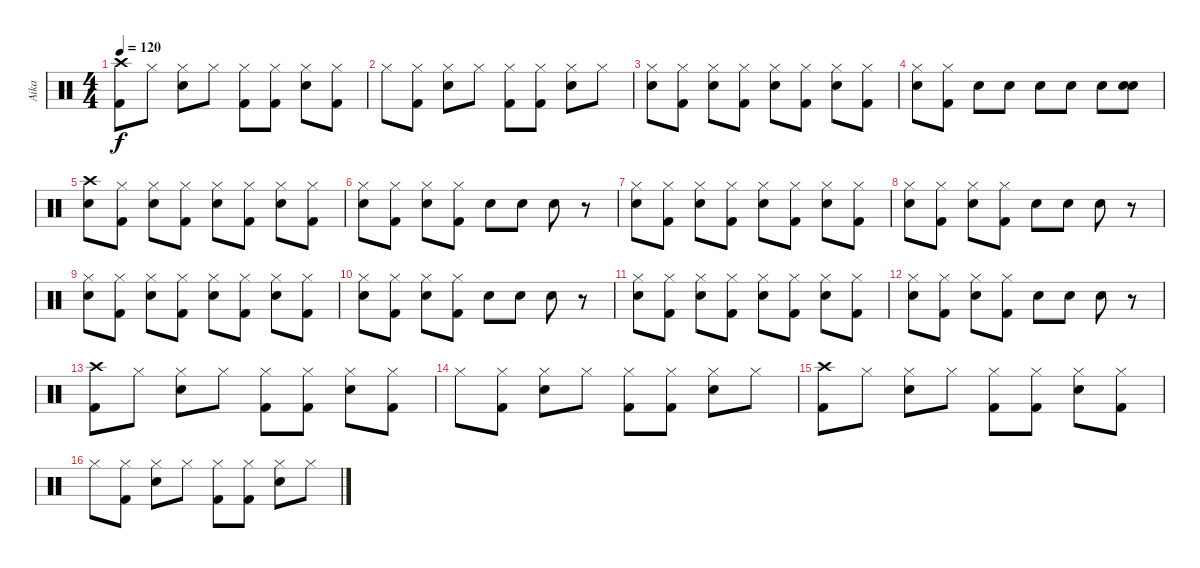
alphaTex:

\track ("Aika" "Aika") {instrument percussion}
\staff {score}
\articulation defaults
\ts (4 4)
\tempo 120
\clef neutral
\ks c
("Crash high (hit)" "Kick (hit) 2").8{dy f} "Hi-Hat (closed)".8 ("Hi-Hat (closed)" "Snare (hit) 2").8 "Hi-Hat (closed)".8 ("Hi-Hat (closed)" "Kick (hit) 2").8 ("Hi-Hat (closed)" "Kick (hit) 2").8 ("Hi-Hat (closed)" "Snare (hit) 2").8 ("Hi-Hat (closed)" "Kick (hit) 2").8 |
"Hi-Hat (closed)".8 ("Hi-Hat (closed)" "Kick (hit) 2").8 ("Hi-Hat (closed)" "Snare (hit) 2").8 "Hi-Hat (closed)".8 ("Hi-Hat (closed)" "Kick (hit) 2").8 ("Hi-Hat (closed)" "Kick (hit) 2").8 ("Hi-Hat (closed)" "Snare (hit) 2").8 "Hi-Hat (closed)".8 |
("Hi-Hat (closed)" "Snare (hit) 2").8 ("Hi-Hat (closed)" "Kick (hit) 2").8 ("Hi-Hat (closed)" "Snare (hit) 2").8 ("Hi-Hat (closed)" "Kick (hit) 2").8 ("Hi-Hat (closed)" "Snare (hit) 2").8 ("Hi-Hat (closed)" "Kick (hit) 2").8 ("Hi-Hat (closed)" "Snare (hit) 2").8 ("Hi-Hat (closed)" "Kick (hit) 2").8 |
("Hi-Hat (closed)" "Snare (hit) 2").8 ("Hi-Hat (closed)" "Kick (hit) 2").8 "Snare (hit) 2".8 "Snare (hit) 2".8 "Snare (hit) 2".8 "Snare (hit) 2".8 "Snare (hit) 2".8 ("Snare (hit) 2" "Snare (hit) 2").8 |
("Crash high (hit)" "Snare (hit) 2").8 ("Hi-Hat (closed)" "Kick (hit) 2").8 ("Hi-Hat (closed)" "Snare (hit) 2").8 ("Hi-Hat (closed)" "Kick (hit) 2").8 ("Hi-Hat (closed)" "Snare (hit) 2").8 ("Hi-Hat (closed)" "Kick (hit) 2").8 ("Hi-Hat (closed)" "Snare (hit) 2").8 ("Hi-Hat (closed)" "Kick (hit) 2").8 |
("Hi-Hat (closed)" "Snare (hit) 2").8 ("Hi-Hat (closed)" "Kick (hit) 2").8 ("Hi-Hat (closed)" "Snare (hit) 2").8 ("Hi-Hat (closed)" "Kick (hit) 2").8 "Snare (hit) 2".8 "Snare (hit) 2".8 "Snare (hit) 2".8 r.8 |
("Hi-Hat (closed)" "Snare (hit) 2").8 ("Hi-Hat (closed)" "Kick (hit) 2").8 ("Hi-Hat (closed)" "Snare (hit) 2").8 ("Hi-Hat (closed)" "Kick (hit) 2").8 ("Hi-Hat (closed)" "Snare (hit) 2").8 ("Hi-Hat (closed)" "Kick (hit) 2").8 ("Hi-Hat (closed)" "Snare (hit) 2").8 ("Hi-Hat (closed)" "Kick (hit) 2").8 |
("Hi-Hat (closed)" "Snare (hit) 2").8 ("Hi-Hat (closed)" "Kick (hit) 2").8 ("Hi-Hat (closed)" "Snare (hit) 2").8 ("Hi-Hat (closed)" "Kick (hit) 2").8 "Snare (hit) 2".8 "Snare (hit) 2".8 "Snare (hit) 2".8 r.8 |
("Hi-Hat (closed)" "Snare (hit) 2").8 ("Hi-Hat (closed)" "Kick (hit) 2").8 ("Hi-Hat (closed)" "Snare (hit) 2").8 ("Hi-Hat (closed)" "Kick (hit) 2").8 ("Hi-Hat (closed)" "Snare (hit) 2").8 ("Hi-Hat (closed)" "Kick (hit) 2").8 ("Hi-Hat (closed)" "Snare (hit) 2").8 ("Hi-Hat (closed)" "Kick (hit) 2").8 |
("Hi-Hat (closed)" "Snare (hit) 2").8 ("Hi-Hat (closed)" "Kick (hit) 2").8 ("Hi-Hat (closed)" "Snare (hit) 2").8 ("Hi-Hat (closed)" "Kick (hit) 2").8 "Snare (hit) 2".8 "Snare (hit) 2".8 "Snare (hit) 2".8 r.8 |
("Hi-Hat (closed)" "Snare (hit) 2").8 ("Hi-Hat (closed)" "Kick (hit) 2").8 ("Hi-Hat (closed)" "Snare (hit) 2").8 ("Hi-Hat (closed)" "Kick (hit) 2").8 ("Hi-Hat (closed)" "Snare (hit) 2").8 ("Hi-Hat (closed)" "Kick (hit) 2").8 ("Hi-Hat (closed)" "Snare (hit) 2").8 ("Hi-Hat (closed)" "Kick (hit) 2").8 |
("Hi-Hat (closed)" "Snare (hit) 2").8 ("Hi-Hat (closed)" "Kick (hit) 2").8 ("Hi-Hat (closed)" "Snare (hit) 2").8 ("Hi-Hat (closed)" "Kick (hit) 2").8 "Snare (hit) 2".8 "Snare (hit) 2".8 "Snare (hit) 2".8 r.8 |
("Crash high (hit)" "Kick (hit) 2").8 "Hi-Hat (closed)".8 ("Hi-Hat (closed)" "Snare (hit) 2").8 "Hi-Hat (closed)".8 ("Hi-Hat (closed)" "Kick (hit) 2").8 ("Hi-Hat (closed)" "Kick (hit) 2").8 ("Hi-Hat (closed)" "Snare (hit) 2").8 ("Hi-Hat (closed)" "Kick (hit) 2").8 |
"Hi-Hat (closed)".8 ("Hi-Hat (closed)" "Kick (hit) 2").8 ("Hi-Hat (closed)" "Snare (hit) 2").8 "Hi-Hat (closed)".8 ("Hi-Hat (closed)" "Kick (hit) 2").8 ("Hi-Hat (closed)" "Kick (hit) 2").8 ("Hi-Hat (closed)" "Snare (hit) 2").8 "Hi-Hat (closed)".8 |
("Crash high (hit)" "Kick (hit) 2").8 "Hi-Hat (closed)".8 ("Hi-Hat (closed)" "Snare (hit) 2").8 "Hi-Hat (closed)".8 ("Hi-Hat (closed)" "Kick (hit) 2").8 ("Hi-Hat (closed)" "Kick (hit) 2").8 ("Hi-Hat (closed)" "Snare (hit) 2").8 ("Hi-Hat (closed)" "Kick (hit) 2").8 |
"Hi-Hat (closed)".8 ("Hi-Hat (closed)" "Kick (hit) 2").8 ("Hi-Hat (closed)" "Snare (hit) 2").8 "Hi-Hat (closed)".8 ("Hi-Hat (closed)" "Kick (hit) 2").8 ("Hi-Hat (closed)" "Kick (hit) 2").8 ("Hi-Hat (closed)" "Snare (hit) 2").8 "Hi-Hat (closed)".8
